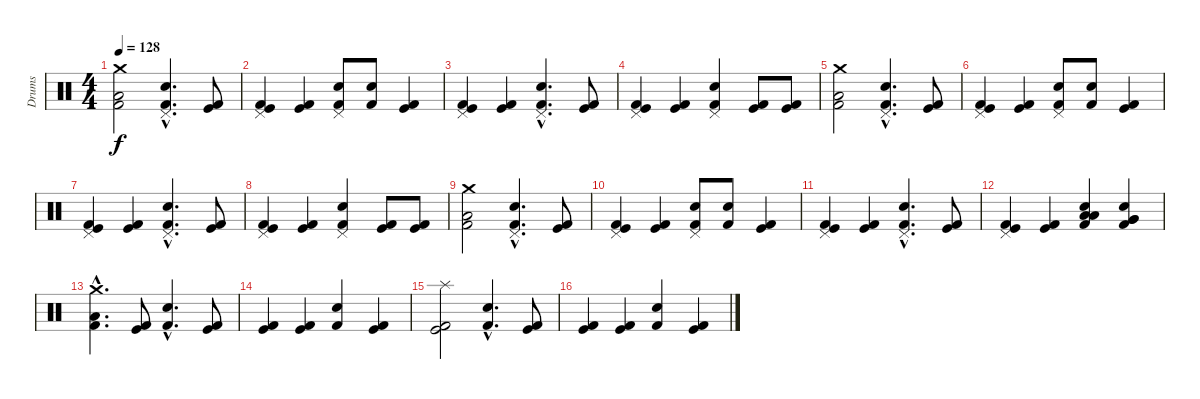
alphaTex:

\track ("Drums" "Drums") {instrument percussion}
\staff {score}
\articulation defaults
\ts (4 4)
\tempo 128
\clef neutral
\ks c
("Crash medium (hit)" "Low Floor Tom (hit)" "Kick (hit) 2").2{dy f} ("Pedal Hi-Hat (hit)"{hac} "Snare (hit) 2"{hac} "Kick (hit) 2"{hac}).4{d} ("Kick (hit)" "Kick (hit) 2").8 |
("Pedal Hi-Hat (hit)" "Kick (hit)" "Kick (hit) 2").4 ("Kick (hit)" "Kick (hit) 2").4 ("Pedal Hi-Hat (hit)" "Snare (hit) 2" "Kick (hit) 2").8 ("Snare (hit) 2" "Kick (hit) 2").8 ("Kick (hit)" "Kick (hit) 2").4 |
("Pedal Hi-Hat (hit)" "Kick (hit)" "Kick (hit) 2").4 ("Kick (hit)" "Kick (hit) 2").4 ("Pedal Hi-Hat (hit)"{hac} "Snare (hit) 2"{hac} "Kick (hit) 2"{hac}).4{d} ("Kick (hit)" "Kick (hit) 2").8 |
("Pedal Hi-Hat (hit)" "Kick (hit)" "Kick (hit) 2").4 ("Kick (hit)" "Kick (hit) 2").4 ("Pedal Hi-Hat (hit)" "Snare (hit) 2" "Kick (hit) 2").4 ("Kick (hit)" "Kick (hit) 2").8 ("Kick (hit)" "Kick (hit) 2").8 |
("Crash medium (hit)" "Low Floor Tom (hit)" "Kick (hit) 2").2 ("Pedal Hi-Hat (hit)"{hac} "Snare (hit) 2"{hac} "Kick (hit) 2"{hac}).4{d} ("Kick (hit)" "Kick (hit) 2").8 |
("Pedal Hi-Hat (hit)" "Kick (hit)" "Kick (hit) 2").4 ("Kick (hit)" "Kick (hit) 2").4 ("Pedal Hi-Hat (hit)" "Snare (hit) 2" "Kick (hit) 2").8 ("Snare (hit) 2" "Kick (hit) 2").8 ("Kick (hit)" "Kick (hit) 2").4 |
("Pedal Hi-Hat (hit)" "Kick (hit)" "Kick (hit) 2").4 ("Kick (hit)" "Kick (hit) 2").4 ("Pedal Hi-Hat (hit)"{hac} "Snare (hit) 2"{hac} "Kick (hit) 2"{hac}).4{d} ("Kick (hit)" "Kick (hit) 2").8 |
("Pedal Hi-Hat (hit)" "Kick (hit)" "Kick (hit) 2").4 ("Kick (hit)" "Kick (hit) 2").4 ("Pedal Hi-Hat (hit)" "Snare (hit) 2" "Kick (hit) 2").4 ("Kick (hit)" "Kick (hit) 2").8 ("Kick (hit)" "Kick (hit) 2").8 |
("Crash medium (hit)" "Low Floor Tom (hit)" "Kick (hit) 2").2 ("Pedal Hi-Hat (hit)"{hac} "Snare (hit) 2"{hac} "Kick (hit) 2"{hac}).4{d} ("Kick (hit)" "Kick (hit) 2").8 |
("Pedal Hi-Hat (hit)" "Kick (hit)" "Kick (hit) 2").4 ("Kick (hit)" "Kick (hit) 2").4 ("Pedal Hi-Hat (hit)" "Snare (hit) 2" "Kick (hit) 2").8 ("Snare (hit) 2" "Kick (hit) 2").8 ("Kick (hit)" "Kick (hit) 2").4 |
("Pedal Hi-Hat (hit)" "Kick (hit)" "Kick (hit) 2").4 ("Kick (hit)" "Kick (hit) 2").4 ("Pedal Hi-Hat (hit)"{hac} "Snare (hit) 2"{hac} "Kick (hit) 2"{hac}).4{d} ("Kick (hit)" "Kick (hit) 2").8 |
("Pedal Hi-Hat (hit)" "Kick (hit)" "Kick (hit) 2").4 ("Kick (hit)" "Kick (hit) 2").4 ("Snare (hit) 2" "Low Tom (hit)" "Low Tom (hit)" "Kick (hit) 2").4 ("Snare (hit) 2" "Very Low Tom (hit)" "Very Low Tom (hit)" "Kick (hit) 2").4 |
("Crash medium (hit)"{hac} "Low Floor Tom (hit)"{hac} "Kick (hit) 2"{hac}).4{d} ("Kick (hit)" "Kick (hit) 2").8 ("Snare (hit) 2"{hac} "Kick (hit) 2"{hac}).4{d} ("Kick (hit)" "Kick (hit) 2").8 |
("Kick (hit)" "Kick (hit) 2").4 ("Kick (hit)" "Kick (hit) 2").4 ("Snare (hit) 2" "Kick (hit) 2").4 ("Kick (hit)" "Kick (hit) 2").4 |
("Splash (hit)" "Kick (hit)" "Kick (hit) 2").2 ("Snare (hit) 2"{hac} "Kick (hit) 2"{hac}).4{d} ("Kick (hit)" "Kick (hit) 2").8 |
("Kick (hit)" "Kick (hit) 2").4 ("Kick (hit)" "Kick (hit) 2").4 ("Snare (hit) 2" "Kick (hit) 2").4 ("Kick (hit)" "Kick (hit) 2").4
